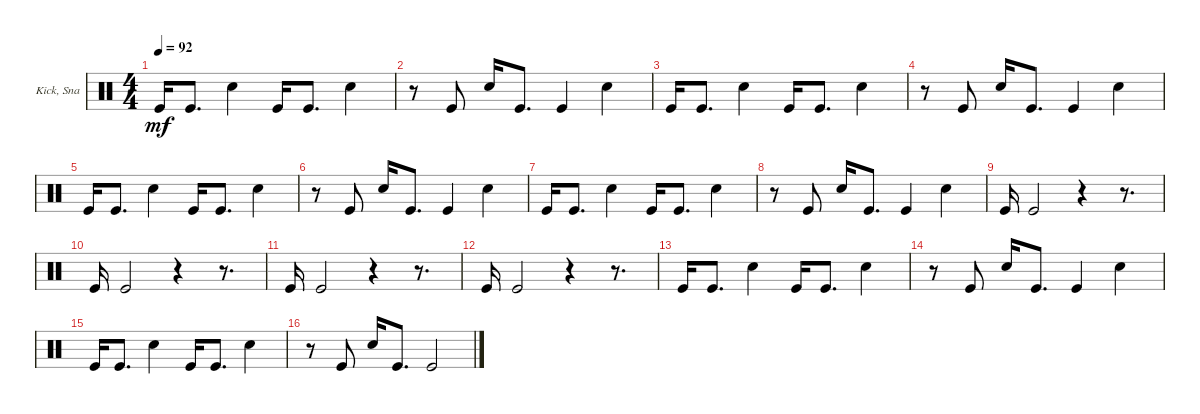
\bracketExtendMode groupsimilarinstruments
\firstSystemTrackNameOrientation horizontal
\otherSystemsTrackNameOrientation horizontal
\track (" Kick, Snare" " Kick, Sna") {instrument percussion}
\staff {score}
\articulation defaults
\ts (4 4)
\tempo 92
\clef neutral
\ks c "Kick (hit)".16{dy mf} "Kick (hit)".8{d} "Snare (hit) 2".4 "Kick (hit)".16 "Kick (hit)".8{d} "Snare (hit) 2".4
|
r.8 "Kick (hit)".8 "Snare (hit) 2".16 "Kick (hit)".8{d} "Kick (hit)".4 "Snare (hit) 2".4 |
"Kick (hit)".16 "Kick (hit)".8{d} "Snare (hit) 2".4 "Kick (hit)".16 "Kick (hit)".8{d} "Snare (hit) 2".4 |
r.8 "Kick (hit)".8 "Snare (hit) 2".16 "Kick (hit)".8{d} "Kick (hit)".4 "Snare (hit) 2".4 |
"Kick (hit)".16 "Kick (hit)".8{d} "Snare (hit) 2".4 "Kick (hit)".16 "Kick (hit)".8{d} "Snare (hit) 2".4 |
r.8 "Kick (hit)".8 "Snare (hit) 2".16 "Kick (hit)".8{d} "Kick (hit)".4 "Snare (hit) 2".4 |
"Kick (hit)".16 "Kick (hit)".8{d} "Snare (hit) 2".4 "Kick (hit)".16 "Kick (hit)".8{d} "Snare (hit) 2".4 |
r.8 "Kick (hit)".8 "Snare (hit) 2".16 "Kick (hit)".8{d} "Kick (hit)".4 "Snare (hit) 2".4 |
"Kick (hit)".16 "Kick (hit)".2 r.4 r.8{d} |
"Kick (hit)".16 "Kick (hit)".2 r.4 r.8{d} |
"Kick (hit)".16 "Kick (hit)".2 r.4 r.8{d} |
"Kick (hit)".16 "Kick (hit)".2 r.4 r.8{d} |
"Kick (hit)".16 "Kick (hit)".8{d} "Snare (hit) 2".4 "Kick (hit)".16 "Kick (hit)".8{d} "Snare (hit) 2".4 |
r.8 "Kick (hit)".8 "Snare (hit) 2".16 "Kick (hit)".8{d} "Kick (hit)".4 "Snare (hit) 2".4 |
"Kick (hit)".16 "Kick (hit)".8{d} "Snare (hit) 2".4 "Kick (hit)".16 "Kick (hit)".8{d} "Snare (hit) 2".4 |
r.8 "Kick (hit)".8 "Snare (hit) 2".16 "Kick (hit)".8{d} "Kick (hit)".2
